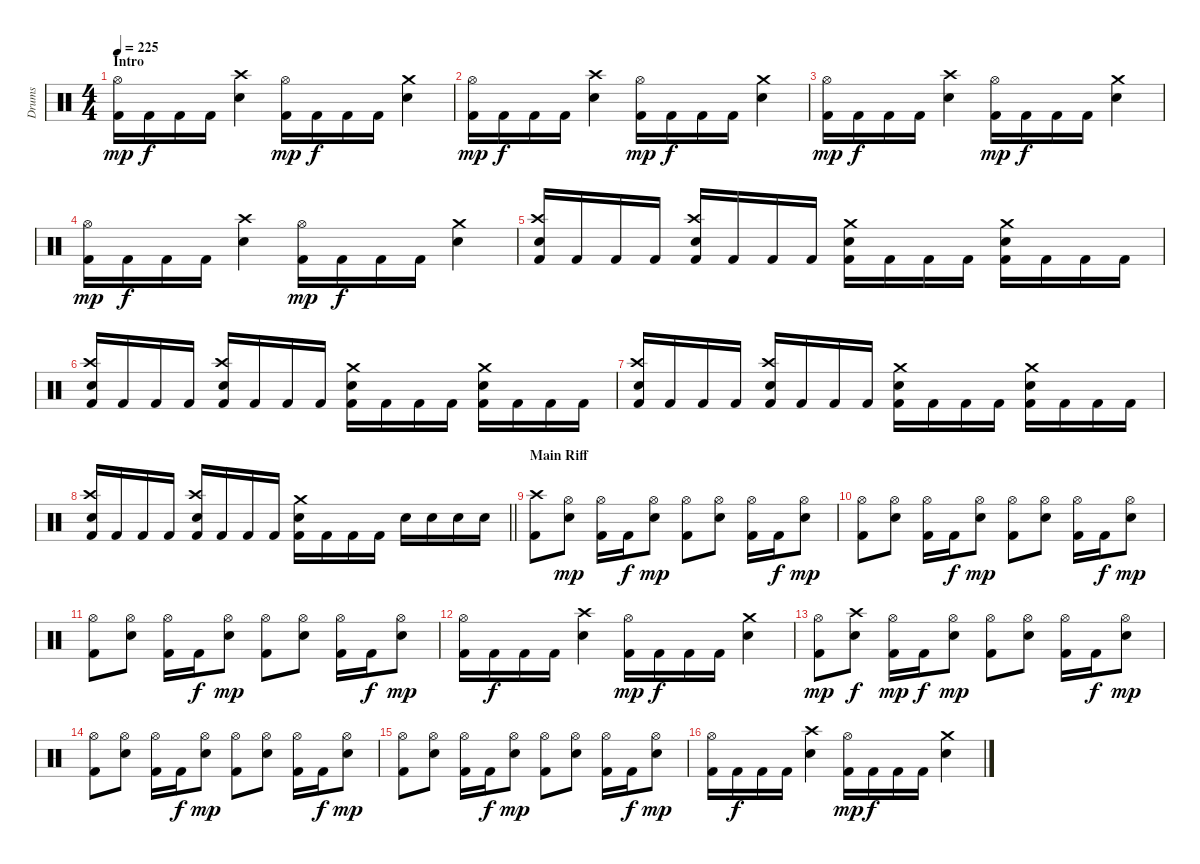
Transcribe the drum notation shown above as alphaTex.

\track ("Drums" "Drums") {instrument percussion}
\staff {score}
\articulation defaults
\ts (4 4)
\section ("" "Intro")
\tempo 225
\clef neutral
\ks c
("Hi-Hat (open)" "Kick (hit) 2").16{dy mp} "Kick (hit) 2".16{dy f} "Kick (hit) 2".16 "Kick (hit) 2".16 ("Crash high (hit)" "Snare (hit) 2").4 ("Hi-Hat (open)" "Kick (hit) 2").16{dy mp} "Kick (hit) 2".16{dy f} "Kick (hit) 2".16 "Kick (hit) 2".16 ("Crash medium (hit)" "Snare (hit) 2").4 |
("Hi-Hat (open)" "Kick (hit) 2").16{dy mp} "Kick (hit) 2".16{dy f} "Kick (hit) 2".16 "Kick (hit) 2".16 ("Crash high (hit)" "Snare (hit) 2").4 ("Hi-Hat (open)" "Kick (hit) 2").16{dy mp} "Kick (hit) 2".16{dy f} "Kick (hit) 2".16 "Kick (hit) 2".16 ("Crash medium (hit)" "Snare (hit) 2").4 |
("Hi-Hat (open)" "Kick (hit) 2").16{dy mp} "Kick (hit) 2".16{dy f} "Kick (hit) 2".16 "Kick (hit) 2".16 ("Crash high (hit)" "Snare (hit) 2").4 ("Hi-Hat (open)" "Kick (hit) 2").16{dy mp} "Kick (hit) 2".16{dy f} "Kick (hit) 2".16 "Kick (hit) 2".16 ("Crash medium (hit)" "Snare (hit) 2").4 |
("Hi-Hat (open)" "Kick (hit) 2").16{dy mp} "Kick (hit) 2".16{dy f} "Kick (hit) 2".16 "Kick (hit) 2".16 ("Crash high (hit)" "Snare (hit) 2").4 ("Hi-Hat (open)" "Kick (hit) 2").16{dy mp} "Kick (hit) 2".16{dy f} "Kick (hit) 2".16 "Kick (hit) 2".16 ("Crash medium (hit)" "Snare (hit) 2").4 |
("Crash high (hit)" "Snare (hit) 2" "Kick (hit) 2").16 "Kick (hit) 2".16 "Kick (hit) 2".16 "Kick (hit) 2".16 ("Crash high (hit)" "Snare (hit) 2" "Kick (hit) 2").16 "Kick (hit) 2".16 "Kick (hit) 2".16 "Kick (hit) 2".16 ("Crash medium (hit)" "Snare (hit) 2" "Kick (hit) 2").16 "Kick (hit) 2".16 "Kick (hit) 2".16 "Kick (hit) 2".16 ("Crash medium (hit)" "Snare (hit) 2" "Kick (hit) 2").16 "Kick (hit) 2".16 "Kick (hit) 2".16 "Kick (hit) 2".16 |
("Crash high (hit)" "Snare (hit) 2" "Kick (hit) 2").16 "Kick (hit) 2".16 "Kick (hit) 2".16 "Kick (hit) 2".16 ("Crash high (hit)" "Snare (hit) 2" "Kick (hit) 2").16 "Kick (hit) 2".16 "Kick (hit) 2".16 "Kick (hit) 2".16 ("Crash medium (hit)" "Snare (hit) 2" "Kick (hit) 2").16 "Kick (hit) 2".16 "Kick (hit) 2".16 "Kick (hit) 2".16 ("Crash medium (hit)" "Snare (hit) 2" "Kick (hit) 2").16 "Kick (hit) 2".16 "Kick (hit) 2".16 "Kick (hit) 2".16 |
("Crash high (hit)" "Snare (hit) 2" "Kick (hit) 2").16 "Kick (hit) 2".16 "Kick (hit) 2".16 "Kick (hit) 2".16 ("Crash high (hit)" "Snare (hit) 2" "Kick (hit) 2").16 "Kick (hit) 2".16 "Kick (hit) 2".16 "Kick (hit) 2".16 ("Crash medium (hit)" "Snare (hit) 2" "Kick (hit) 2").16 "Kick (hit) 2".16 "Kick (hit) 2".16 "Kick (hit) 2".16 ("Crash medium (hit)" "Snare (hit) 2" "Kick (hit) 2").16 "Kick (hit) 2".16 "Kick (hit) 2".16 "Kick (hit) 2".16 |
\barLineRight lightlight
("Crash high (hit)" "Snare (hit) 2" "Kick (hit) 2").16 "Kick (hit) 2".16 "Kick (hit) 2".16 "Kick (hit) 2".16 ("Crash high (hit)" "Snare (hit) 2" "Kick (hit) 2").16 "Kick (hit) 2".16 "Kick (hit) 2".16 "Kick (hit) 2".16 ("Crash medium (hit)" "Snare (hit) 2" "Kick (hit) 2").16 "Kick (hit) 2".16 "Kick (hit) 2".16 "Kick (hit) 2".16 "Snare (hit) 2".16 "Snare (hit) 2".16 "Snare (hit) 2".16 "Snare (hit) 2".16 |
\section ("" "Main Riff")
("Crash high (hit)" "Kick (hit) 2").8 ("Hi-Hat (open)" "Snare (hit) 2").8{dy mp} ("Hi-Hat (open)" "Kick (hit) 2").16 "Kick (hit) 2".16{dy f} ("Hi-Hat (open)" "Snare (hit) 2").8{dy mp} ("Hi-Hat (open)" "Kick (hit) 2").8 ("Hi-Hat (open)" "Snare (hit) 2").8 ("Hi-Hat (open)" "Kick (hit) 2").16 "Kick (hit) 2".16{dy f} ("Hi-Hat (open)" "Snare (hit) 2").8{dy mp} |
("Hi-Hat (open)" "Kick (hit) 2").8 ("Hi-Hat (open)" "Snare (hit) 2").8 ("Hi-Hat (open)" "Kick (hit) 2").16 "Kick (hit) 2".16{dy f} ("Hi-Hat (open)" "Snare (hit) 2").8{dy mp} ("Hi-Hat (open)" "Kick (hit) 2").8 ("Hi-Hat (open)" "Snare (hit) 2").8 ("Hi-Hat (open)" "Kick (hit) 2").16 "Kick (hit) 2".16{dy f} ("Hi-Hat (open)" "Snare (hit) 2").8{dy mp} |
("Hi-Hat (open)" "Kick (hit) 2").8 ("Hi-Hat (open)" "Snare (hit) 2").8 ("Hi-Hat (open)" "Kick (hit) 2").16 "Kick (hit) 2".16{dy f} ("Hi-Hat (open)" "Snare (hit) 2").8{dy mp} ("Hi-Hat (open)" "Kick (hit) 2").8 ("Hi-Hat (open)" "Snare (hit) 2").8 ("Hi-Hat (open)" "Kick (hit) 2").16 "Kick (hit) 2".16{dy f} ("Hi-Hat (open)" "Snare (hit) 2").8{dy mp} |
("Hi-Hat (open)" "Kick (hit) 2").16 "Kick (hit) 2".16{dy f} "Kick (hit) 2".16 "Kick (hit) 2".16 ("Crash high (hit)" "Snare (hit) 2").4 ("Hi-Hat (open)" "Kick (hit) 2").16{dy mp} "Kick (hit) 2".16{dy f} "Kick (hit) 2".16 "Kick (hit) 2".16 ("Crash medium (hit)" "Snare (hit) 2").4 |
("Hi-Hat (open)" "Kick (hit) 2").8{dy mp} ("Crash high (hit)" "Snare (hit) 2").8{dy f} ("Hi-Hat (open)" "Kick (hit) 2").16{dy mp} "Kick (hit) 2".16{dy f} ("Hi-Hat (open)" "Snare (hit) 2").8{dy mp} ("Hi-Hat (open)" "Kick (hit) 2").8 ("Hi-Hat (open)" "Snare (hit) 2").8 ("Hi-Hat (open)" "Kick (hit) 2").16 "Kick (hit) 2".16{dy f} ("Hi-Hat (open)" "Snare (hit) 2").8{dy mp} |
("Hi-Hat (open)" "Kick (hit) 2").8 ("Hi-Hat (open)" "Snare (hit) 2").8 ("Hi-Hat (open)" "Kick (hit) 2").16 "Kick (hit) 2".16{dy f} ("Hi-Hat (open)" "Snare (hit) 2").8{dy mp} ("Hi-Hat (open)" "Kick (hit) 2").8 ("Hi-Hat (open)" "Snare (hit) 2").8 ("Hi-Hat (open)" "Kick (hit) 2").16 "Kick (hit) 2".16{dy f} ("Hi-Hat (open)" "Snare (hit) 2").8{dy mp} |
("Hi-Hat (open)" "Kick (hit) 2").8 ("Hi-Hat (open)" "Snare (hit) 2").8 ("Hi-Hat (open)" "Kick (hit) 2").16 "Kick (hit) 2".16{dy f} ("Hi-Hat (open)" "Snare (hit) 2").8{dy mp} ("Hi-Hat (open)" "Kick (hit) 2").8 ("Hi-Hat (open)" "Snare (hit) 2").8 ("Hi-Hat (open)" "Kick (hit) 2").16 "Kick (hit) 2".16{dy f} ("Hi-Hat (open)" "Snare (hit) 2").8{dy mp} |
("Hi-Hat (open)" "Kick (hit) 2").16 "Kick (hit) 2".16{dy f} "Kick (hit) 2".16 "Kick (hit) 2".16 ("Crash high (hit)" "Snare (hit) 2").4 ("Hi-Hat (open)" "Kick (hit) 2").16{dy mp} "Kick (hit) 2".16{dy f} "Kick (hit) 2".16 "Kick (hit) 2".16 ("Crash medium (hit)" "Snare (hit) 2").4
